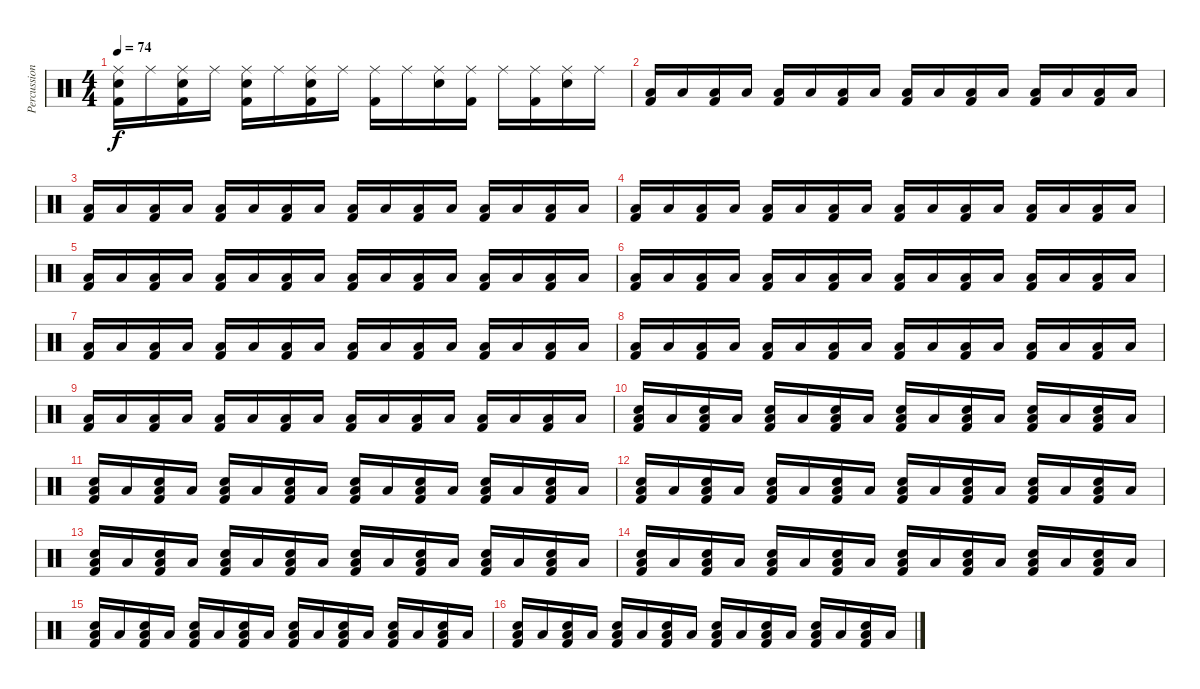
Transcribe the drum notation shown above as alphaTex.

\track ("Percussion" "Percussion") {instrument percussion}
\staff {score}
\articulation defaults
\ts (4 4)
\tempo 74
\clef neutral
\ks c
("Ride (middle)" "Kick (hit) 2" "Electric Snare (hit)").16{dy f} "Ride (middle)".16 ("Ride (middle)" "Kick (hit) 2" "Electric Snare (hit)").16 "Ride (middle)".16 ("Ride (middle)" "Kick (hit) 2" "Electric Snare (hit)").16 "Ride (middle)".16 ("Ride (middle)" "Kick (hit) 2" "Electric Snare (hit)").16 "Ride (middle)".16 ("Ride (middle)" "Kick (hit) 2").16 "Ride (middle)".16 ("Ride (middle)" "Electric Snare (hit)").16 ("Ride (middle)" "Kick (hit) 2").16 "Ride (middle)".16 ("Ride (middle)" "Kick (hit) 2").16 ("Ride (middle)" "Electric Snare (hit)").16 "Ride (middle)".16 |
("Low Floor Tom (hit)" "Kick (hit) 2").16 "Low Floor Tom (hit)".16 ("Low Floor Tom (hit)" "Kick (hit) 2").16 "Low Floor Tom (hit)".16 ("Low Floor Tom (hit)" "Kick (hit) 2").16 "Low Floor Tom (hit)".16 ("Low Floor Tom (hit)" "Kick (hit) 2").16 "Low Floor Tom (hit)".16 ("Low Floor Tom (hit)" "Kick (hit) 2").16 "Low Floor Tom (hit)".16 ("Low Floor Tom (hit)" "Kick (hit) 2").16 "Low Floor Tom (hit)".16 ("Low Floor Tom (hit)" "Kick (hit) 2").16 "Low Floor Tom (hit)".16 ("Low Floor Tom (hit)" "Kick (hit) 2").16 "Low Floor Tom (hit)".16 |
("Low Floor Tom (hit)" "Kick (hit) 2").16 "Low Floor Tom (hit)".16 ("Low Floor Tom (hit)" "Kick (hit) 2").16 "Low Floor Tom (hit)".16 ("Low Floor Tom (hit)" "Kick (hit) 2").16 "Low Floor Tom (hit)".16 ("Low Floor Tom (hit)" "Kick (hit) 2").16 "Low Floor Tom (hit)".16 ("Low Floor Tom (hit)" "Kick (hit) 2").16 "Low Floor Tom (hit)".16 ("Low Floor Tom (hit)" "Kick (hit) 2").16 "Low Floor Tom (hit)".16 ("Low Floor Tom (hit)" "Kick (hit) 2").16 "Low Floor Tom (hit)".16 ("Low Floor Tom (hit)" "Kick (hit) 2").16 "Low Floor Tom (hit)".16 |
("Low Floor Tom (hit)" "Kick (hit) 2").16 "Low Floor Tom (hit)".16 ("Low Floor Tom (hit)" "Kick (hit) 2").16 "Low Floor Tom (hit)".16 ("Low Floor Tom (hit)" "Kick (hit) 2").16 "Low Floor Tom (hit)".16 ("Low Floor Tom (hit)" "Kick (hit) 2").16 "Low Floor Tom (hit)".16 ("Low Floor Tom (hit)" "Kick (hit) 2").16 "Low Floor Tom (hit)".16 ("Low Floor Tom (hit)" "Kick (hit) 2").16 "Low Floor Tom (hit)".16 ("Low Floor Tom (hit)" "Kick (hit) 2").16 "Low Floor Tom (hit)".16 ("Low Floor Tom (hit)" "Kick (hit) 2").16 "Low Floor Tom (hit)".16 |
("Low Floor Tom (hit)" "Kick (hit) 2").16 "Low Floor Tom (hit)".16 ("Low Floor Tom (hit)" "Kick (hit) 2").16 "Low Floor Tom (hit)".16 ("Low Floor Tom (hit)" "Kick (hit) 2").16 "Low Floor Tom (hit)".16 ("Low Floor Tom (hit)" "Kick (hit) 2").16 "Low Floor Tom (hit)".16 ("Low Floor Tom (hit)" "Kick (hit) 2").16 "Low Floor Tom (hit)".16 ("Low Floor Tom (hit)" "Kick (hit) 2").16 "Low Floor Tom (hit)".16 ("Low Floor Tom (hit)" "Kick (hit) 2").16 "Low Floor Tom (hit)".16 ("Low Floor Tom (hit)" "Kick (hit) 2").16 "Low Floor Tom (hit)".16 |
("Low Floor Tom (hit)" "Kick (hit) 2").16 "Low Floor Tom (hit)".16 ("Low Floor Tom (hit)" "Kick (hit) 2").16 "Low Floor Tom (hit)".16 ("Low Floor Tom (hit)" "Kick (hit) 2").16 "Low Floor Tom (hit)".16 ("Low Floor Tom (hit)" "Kick (hit) 2").16 "Low Floor Tom (hit)".16 ("Low Floor Tom (hit)" "Kick (hit) 2").16 "Low Floor Tom (hit)".16 ("Low Floor Tom (hit)" "Kick (hit) 2").16 "Low Floor Tom (hit)".16 ("Low Floor Tom (hit)" "Kick (hit) 2").16 "Low Floor Tom (hit)".16 ("Low Floor Tom (hit)" "Kick (hit) 2").16 "Low Floor Tom (hit)".16 |
("Low Floor Tom (hit)" "Kick (hit) 2").16 "Low Floor Tom (hit)".16 ("Low Floor Tom (hit)" "Kick (hit) 2").16 "Low Floor Tom (hit)".16 ("Low Floor Tom (hit)" "Kick (hit) 2").16 "Low Floor Tom (hit)".16 ("Low Floor Tom (hit)" "Kick (hit) 2").16 "Low Floor Tom (hit)".16 ("Low Floor Tom (hit)" "Kick (hit) 2").16 "Low Floor Tom (hit)".16 ("Low Floor Tom (hit)" "Kick (hit) 2").16 "Low Floor Tom (hit)".16 ("Low Floor Tom (hit)" "Kick (hit) 2").16 "Low Floor Tom (hit)".16 ("Low Floor Tom (hit)" "Kick (hit) 2").16 "Low Floor Tom (hit)".16 |
("Low Floor Tom (hit)" "Kick (hit) 2").16 "Low Floor Tom (hit)".16 ("Low Floor Tom (hit)" "Kick (hit) 2").16 "Low Floor Tom (hit)".16 ("Low Floor Tom (hit)" "Kick (hit) 2").16 "Low Floor Tom (hit)".16 ("Low Floor Tom (hit)" "Kick (hit) 2").16 "Low Floor Tom (hit)".16 ("Low Floor Tom (hit)" "Kick (hit) 2").16 "Low Floor Tom (hit)".16 ("Low Floor Tom (hit)" "Kick (hit) 2").16 "Low Floor Tom (hit)".16 ("Low Floor Tom (hit)" "Kick (hit) 2").16 "Low Floor Tom (hit)".16 ("Low Floor Tom (hit)" "Kick (hit) 2").16 "Low Floor Tom (hit)".16 |
("Low Floor Tom (hit)" "Kick (hit) 2").16 "Low Floor Tom (hit)".16 ("Low Floor Tom (hit)" "Kick (hit) 2").16 "Low Floor Tom (hit)".16 ("Low Floor Tom (hit)" "Kick (hit) 2").16 "Low Floor Tom (hit)".16 ("Low Floor Tom (hit)" "Kick (hit) 2").16 "Low Floor Tom (hit)".16 ("Low Floor Tom (hit)" "Kick (hit) 2").16 "Low Floor Tom (hit)".16 ("Low Floor Tom (hit)" "Kick (hit) 2").16 "Low Floor Tom (hit)".16 ("Low Floor Tom (hit)" "Kick (hit) 2").16 "Low Floor Tom (hit)".16 ("Low Floor Tom (hit)" "Kick (hit) 2").16 "Low Floor Tom (hit)".16 |
("Low Floor Tom (hit)" "Kick (hit) 2" "Electric Snare (hit)").16 "Low Floor Tom (hit)".16 ("Low Floor Tom (hit)" "Kick (hit) 2" "Electric Snare (hit)").16 "Low Floor Tom (hit)".16 ("Low Floor Tom (hit)" "Kick (hit) 2" "Electric Snare (hit)").16 "Low Floor Tom (hit)".16 ("Low Floor Tom (hit)" "Kick (hit) 2" "Electric Snare (hit)").16 "Low Floor Tom (hit)".16 ("Low Floor Tom (hit)" "Kick (hit) 2" "Electric Snare (hit)").16 "Low Floor Tom (hit)".16 ("Low Floor Tom (hit)" "Kick (hit) 2" "Electric Snare (hit)").16 "Low Floor Tom (hit)".16 ("Low Floor Tom (hit)" "Kick (hit) 2" "Electric Snare (hit)").16 "Low Floor Tom (hit)".16 ("Low Floor Tom (hit)" "Kick (hit) 2" "Electric Snare (hit)").16 "Low Floor Tom (hit)".16 |
("Low Floor Tom (hit)" "Kick (hit) 2" "Electric Snare (hit)").16 "Low Floor Tom (hit)".16 ("Low Floor Tom (hit)" "Kick (hit) 2" "Electric Snare (hit)").16 "Low Floor Tom (hit)".16 ("Low Floor Tom (hit)" "Kick (hit) 2" "Electric Snare (hit)").16 "Low Floor Tom (hit)".16 ("Low Floor Tom (hit)" "Kick (hit) 2" "Electric Snare (hit)").16 "Low Floor Tom (hit)".16 ("Low Floor Tom (hit)" "Kick (hit) 2" "Electric Snare (hit)").16 "Low Floor Tom (hit)".16 ("Low Floor Tom (hit)" "Kick (hit) 2" "Electric Snare (hit)").16 "Low Floor Tom (hit)".16 ("Low Floor Tom (hit)" "Kick (hit) 2" "Electric Snare (hit)").16 "Low Floor Tom (hit)".16 ("Low Floor Tom (hit)" "Kick (hit) 2" "Electric Snare (hit)").16 "Low Floor Tom (hit)".16 |
("Low Floor Tom (hit)" "Kick (hit) 2" "Electric Snare (hit)").16 "Low Floor Tom (hit)".16 ("Low Floor Tom (hit)" "Kick (hit) 2" "Electric Snare (hit)").16 "Low Floor Tom (hit)".16 ("Low Floor Tom (hit)" "Kick (hit) 2" "Electric Snare (hit)").16 "Low Floor Tom (hit)".16 ("Low Floor Tom (hit)" "Kick (hit) 2" "Electric Snare (hit)").16 "Low Floor Tom (hit)".16 ("Low Floor Tom (hit)" "Kick (hit) 2" "Electric Snare (hit)").16 "Low Floor Tom (hit)".16 ("Low Floor Tom (hit)" "Kick (hit) 2" "Electric Snare (hit)").16 "Low Floor Tom (hit)".16 ("Low Floor Tom (hit)" "Kick (hit) 2" "Electric Snare (hit)").16 "Low Floor Tom (hit)".16 ("Low Floor Tom (hit)" "Kick (hit) 2" "Electric Snare (hit)").16 "Low Floor Tom (hit)".16 |
("Low Floor Tom (hit)" "Kick (hit) 2" "Electric Snare (hit)").16 "Low Floor Tom (hit)".16 ("Low Floor Tom (hit)" "Kick (hit) 2" "Electric Snare (hit)").16 "Low Floor Tom (hit)".16 ("Low Floor Tom (hit)" "Kick (hit) 2" "Electric Snare (hit)").16 "Low Floor Tom (hit)".16 ("Low Floor Tom (hit)" "Kick (hit) 2" "Electric Snare (hit)").16 "Low Floor Tom (hit)".16 ("Low Floor Tom (hit)" "Kick (hit) 2" "Electric Snare (hit)").16 "Low Floor Tom (hit)".16 ("Low Floor Tom (hit)" "Kick (hit) 2" "Electric Snare (hit)").16 "Low Floor Tom (hit)".16 ("Low Floor Tom (hit)" "Kick (hit) 2" "Electric Snare (hit)").16 "Low Floor Tom (hit)".16 ("Low Floor Tom (hit)" "Kick (hit) 2" "Electric Snare (hit)").16 "Low Floor Tom (hit)".16 |
("Low Floor Tom (hit)" "Kick (hit) 2" "Electric Snare (hit)").16 "Low Floor Tom (hit)".16 ("Low Floor Tom (hit)" "Kick (hit) 2" "Electric Snare (hit)").16 "Low Floor Tom (hit)".16 ("Low Floor Tom (hit)" "Kick (hit) 2" "Electric Snare (hit)").16 "Low Floor Tom (hit)".16 ("Low Floor Tom (hit)" "Kick (hit) 2" "Electric Snare (hit)").16 "Low Floor Tom (hit)".16 ("Low Floor Tom (hit)" "Kick (hit) 2" "Electric Snare (hit)").16 "Low Floor Tom (hit)".16 ("Low Floor Tom (hit)" "Kick (hit) 2" "Electric Snare (hit)").16 "Low Floor Tom (hit)".16 ("Low Floor Tom (hit)" "Kick (hit) 2" "Electric Snare (hit)").16 "Low Floor Tom (hit)".16 ("Low Floor Tom (hit)" "Kick (hit) 2" "Electric Snare (hit)").16 "Low Floor Tom (hit)".16 |
("Low Floor Tom (hit)" "Kick (hit) 2" "Electric Snare (hit)").16 "Low Floor Tom (hit)".16 ("Low Floor Tom (hit)" "Kick (hit) 2" "Electric Snare (hit)").16 "Low Floor Tom (hit)".16 ("Low Floor Tom (hit)" "Kick (hit) 2" "Electric Snare (hit)").16 "Low Floor Tom (hit)".16 ("Low Floor Tom (hit)" "Kick (hit) 2" "Electric Snare (hit)").16 "Low Floor Tom (hit)".16 ("Low Floor Tom (hit)" "Kick (hit) 2" "Electric Snare (hit)").16 "Low Floor Tom (hit)".16 ("Low Floor Tom (hit)" "Kick (hit) 2" "Electric Snare (hit)").16 "Low Floor Tom (hit)".16 ("Low Floor Tom (hit)" "Kick (hit) 2" "Electric Snare (hit)").16 "Low Floor Tom (hit)".16 ("Low Floor Tom (hit)" "Kick (hit) 2" "Electric Snare (hit)").16 "Low Floor Tom (hit)".16 |
("Low Floor Tom (hit)" "Kick (hit) 2" "Electric Snare (hit)").16 "Low Floor Tom (hit)".16 ("Low Floor Tom (hit)" "Kick (hit) 2" "Electric Snare (hit)").16 "Low Floor Tom (hit)".16 ("Low Floor Tom (hit)" "Kick (hit) 2" "Electric Snare (hit)").16 "Low Floor Tom (hit)".16 ("Low Floor Tom (hit)" "Kick (hit) 2" "Electric Snare (hit)").16 "Low Floor Tom (hit)".16 ("Low Floor Tom (hit)" "Kick (hit) 2" "Electric Snare (hit)").16 "Low Floor Tom (hit)".16 ("Low Floor Tom (hit)" "Kick (hit) 2" "Electric Snare (hit)").16 "Low Floor Tom (hit)".16 ("Low Floor Tom (hit)" "Kick (hit) 2" "Electric Snare (hit)").16 "Low Floor Tom (hit)".16 ("Low Floor Tom (hit)" "Kick (hit) 2" "Electric Snare (hit)").16 "Low Floor Tom (hit)".16
